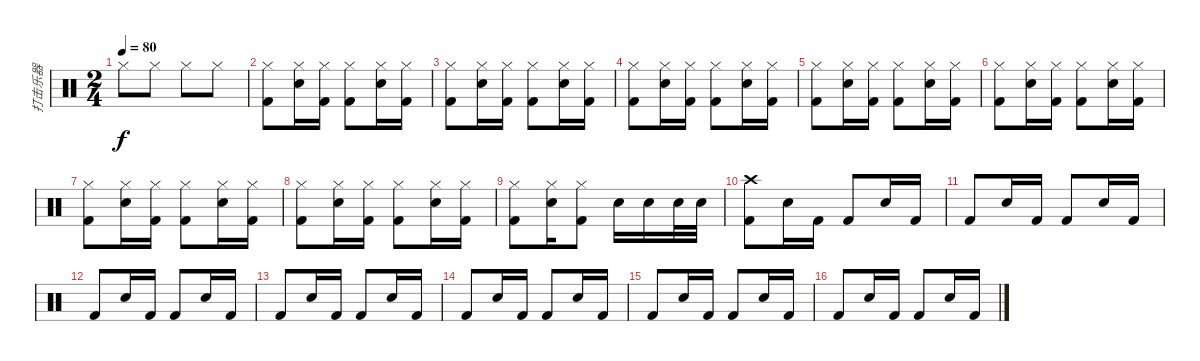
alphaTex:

\track ("打击乐器" "打击乐器") {instrument percussion}
\staff {score}
\articulation defaults
\ts (2 4)
\tempo 80
\clef neutral
\ks c "Hi-Hat (closed)".8{dy f} "Hi-Hat (closed)".8 "Hi-Hat (closed)".8 "Hi-Hat (closed)".8
|
("Hi-Hat (closed)" "Kick (hit) 2").8 ("Electric Snare (hit)" "Hi-Hat (closed)").16 ("Hi-Hat (closed)" "Kick (hit) 2").16 ("Hi-Hat (closed)" "Kick (hit) 2").8 ("Electric Snare (hit)" "Hi-Hat (closed)").16 ("Hi-Hat (closed)" "Kick (hit) 2").16 |
("Hi-Hat (closed)" "Kick (hit) 2").8 ("Electric Snare (hit)" "Hi-Hat (closed)").16 ("Hi-Hat (closed)" "Kick (hit) 2").16 ("Hi-Hat (closed)" "Kick (hit) 2").8 ("Electric Snare (hit)" "Hi-Hat (closed)").16 ("Hi-Hat (closed)" "Kick (hit) 2").16 |
("Hi-Hat (closed)" "Kick (hit) 2").8 ("Electric Snare (hit)" "Hi-Hat (closed)").16 ("Hi-Hat (closed)" "Kick (hit) 2").16 ("Hi-Hat (closed)" "Kick (hit) 2").8 ("Electric Snare (hit)" "Hi-Hat (closed)").16 ("Hi-Hat (closed)" "Kick (hit) 2").16 |
("Hi-Hat (closed)" "Kick (hit) 2").8 ("Electric Snare (hit)" "Hi-Hat (closed)").16 ("Hi-Hat (closed)" "Kick (hit) 2").16 ("Hi-Hat (closed)" "Kick (hit) 2").8 ("Electric Snare (hit)" "Hi-Hat (closed)").16 ("Hi-Hat (closed)" "Kick (hit) 2").16 |
("Hi-Hat (closed)" "Kick (hit) 2").8 ("Electric Snare (hit)" "Hi-Hat (closed)").16 ("Hi-Hat (closed)" "Kick (hit) 2").16 ("Hi-Hat (closed)" "Kick (hit) 2").8 ("Electric Snare (hit)" "Hi-Hat (closed)").16 ("Hi-Hat (closed)" "Kick (hit) 2").16 |
("Hi-Hat (closed)" "Kick (hit) 2").8 ("Electric Snare (hit)" "Hi-Hat (closed)").16 ("Hi-Hat (closed)" "Kick (hit) 2").16 ("Hi-Hat (closed)" "Kick (hit) 2").8 ("Electric Snare (hit)" "Hi-Hat (closed)").16 ("Hi-Hat (closed)" "Kick (hit) 2").16 |
("Hi-Hat (closed)" "Kick (hit) 2").8 ("Electric Snare (hit)" "Hi-Hat (closed)").16 ("Hi-Hat (closed)" "Kick (hit) 2").16 ("Hi-Hat (closed)" "Kick (hit) 2").8 ("Electric Snare (hit)" "Hi-Hat (closed)").16 ("Hi-Hat (closed)" "Kick (hit) 2").16 |
("Hi-Hat (closed)" "Kick (hit) 2").8 ("Electric Snare (hit)" "Hi-Hat (closed)").16 ("Hi-Hat (closed)" "Kick (hit) 2").8 "Electric Snare (hit)".16 "Electric Snare (hit)".16 "Electric Snare (hit)".32 "Electric Snare (hit)".32 |
("Crash high (hit)" "Kick (hit) 2").8 "Electric Snare (hit)".16 "Kick (hit) 2".16 "Kick (hit) 2".8 "Electric Snare (hit)".16 "Kick (hit) 2".16 |
"Kick (hit) 2".8 "Electric Snare (hit)".16 "Kick (hit) 2".16 "Kick (hit) 2".8 "Electric Snare (hit)".16 "Kick (hit) 2".16 |
"Kick (hit) 2".8 "Electric Snare (hit)".16 "Kick (hit) 2".16 "Kick (hit) 2".8 "Electric Snare (hit)".16 "Kick (hit) 2".16 |
"Kick (hit) 2".8 "Electric Snare (hit)".16 "Kick (hit) 2".16 "Kick (hit) 2".8 "Electric Snare (hit)".16 "Kick (hit) 2".16 |
"Kick (hit) 2".8 "Electric Snare (hit)".16 "Kick (hit) 2".16 "Kick (hit) 2".8 "Electric Snare (hit)".16 "Kick (hit) 2".16 |
"Kick (hit) 2".8 "Electric Snare (hit)".16 "Kick (hit) 2".16 "Kick (hit) 2".8 "Electric Snare (hit)".16 "Kick (hit) 2".16 |
"Kick (hit) 2".8 "Electric Snare (hit)".16 "Kick (hit) 2".16 "Kick (hit) 2".8 "Electric Snare (hit)".16 "Kick (hit) 2".16
